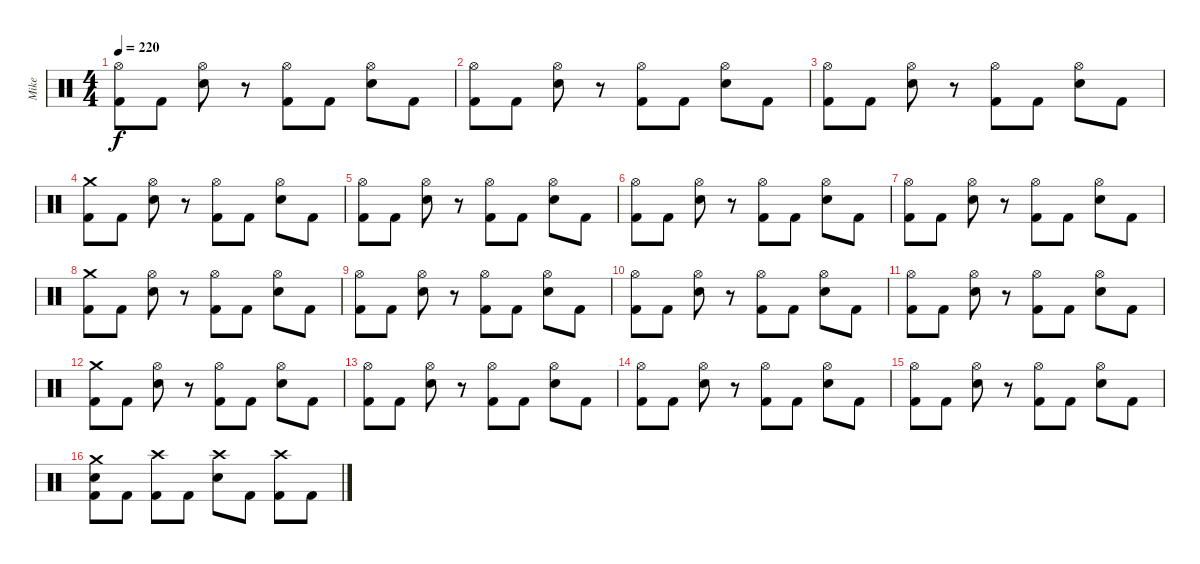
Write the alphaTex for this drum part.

\track ("Mike" "Mike") {instrument percussion}
\staff {score}
\articulation defaults
\ts (4 4)
\tempo 220
\clef neutral
\ks c
("Hi-Hat (open)" "Kick (hit) 2").8{dy f} "Kick (hit) 2".8 ("Hi-Hat (open)" "Electric Snare (hit)").8 r.8 ("Hi-Hat (open)" "Kick (hit) 2").8 "Kick (hit) 2".8 ("Hi-Hat (open)" "Electric Snare (hit)").8 "Kick (hit) 2".8 |
("Hi-Hat (open)" "Kick (hit) 2").8 "Kick (hit) 2".8 ("Hi-Hat (open)" "Electric Snare (hit)").8 r.8 ("Hi-Hat (open)" "Kick (hit) 2").8 "Kick (hit) 2".8 ("Hi-Hat (open)" "Electric Snare (hit)").8 "Kick (hit) 2".8 |
("Hi-Hat (open)" "Kick (hit) 2").8 "Kick (hit) 2".8 ("Hi-Hat (open)" "Electric Snare (hit)").8 r.8 ("Hi-Hat (open)" "Kick (hit) 2").8 "Kick (hit) 2".8 ("Hi-Hat (open)" "Electric Snare (hit)").8 "Kick (hit) 2".8 |
("Crash medium (hit)" "Kick (hit) 2").8 "Kick (hit) 2".8 ("Hi-Hat (open)" "Electric Snare (hit)").8 r.8 ("Hi-Hat (open)" "Kick (hit) 2").8 "Kick (hit) 2".8 ("Hi-Hat (open)" "Electric Snare (hit)").8 "Kick (hit) 2".8 |
("Hi-Hat (open)" "Kick (hit) 2").8 "Kick (hit) 2".8 ("Hi-Hat (open)" "Electric Snare (hit)").8 r.8 ("Hi-Hat (open)" "Kick (hit) 2").8 "Kick (hit) 2".8 ("Hi-Hat (open)" "Electric Snare (hit)").8 "Kick (hit) 2".8 |
("Hi-Hat (open)" "Kick (hit) 2").8 "Kick (hit) 2".8 ("Hi-Hat (open)" "Electric Snare (hit)").8 r.8 ("Hi-Hat (open)" "Kick (hit) 2").8 "Kick (hit) 2".8 ("Hi-Hat (open)" "Electric Snare (hit)").8 "Kick (hit) 2".8 |
("Hi-Hat (open)" "Kick (hit) 2").8 "Kick (hit) 2".8 ("Hi-Hat (open)" "Electric Snare (hit)").8 r.8 ("Hi-Hat (open)" "Kick (hit) 2").8 "Kick (hit) 2".8 ("Hi-Hat (open)" "Electric Snare (hit)").8 "Kick (hit) 2".8 |
("Crash medium (hit)" "Kick (hit) 2").8 "Kick (hit) 2".8 ("Hi-Hat (open)" "Electric Snare (hit)").8 r.8 ("Hi-Hat (open)" "Kick (hit) 2").8 "Kick (hit) 2".8 ("Hi-Hat (open)" "Electric Snare (hit)").8 "Kick (hit) 2".8 |
("Hi-Hat (open)" "Kick (hit) 2").8 "Kick (hit) 2".8 ("Hi-Hat (open)" "Electric Snare (hit)").8 r.8 ("Hi-Hat (open)" "Kick (hit) 2").8 "Kick (hit) 2".8 ("Hi-Hat (open)" "Electric Snare (hit)").8 "Kick (hit) 2".8 |
("Hi-Hat (open)" "Kick (hit) 2").8 "Kick (hit) 2".8 ("Hi-Hat (open)" "Electric Snare (hit)").8 r.8 ("Hi-Hat (open)" "Kick (hit) 2").8 "Kick (hit) 2".8 ("Hi-Hat (open)" "Electric Snare (hit)").8 "Kick (hit) 2".8 |
("Hi-Hat (open)" "Kick (hit) 2").8 "Kick (hit) 2".8 ("Hi-Hat (open)" "Electric Snare (hit)").8 r.8 ("Hi-Hat (open)" "Kick (hit) 2").8 "Kick (hit) 2".8 ("Hi-Hat (open)" "Electric Snare (hit)").8 "Kick (hit) 2".8 |
("Crash medium (hit)" "Kick (hit) 2").8 "Kick (hit) 2".8 ("Hi-Hat (open)" "Electric Snare (hit)").8 r.8 ("Hi-Hat (open)" "Kick (hit) 2").8 "Kick (hit) 2".8 ("Hi-Hat (open)" "Electric Snare (hit)").8 "Kick (hit) 2".8 |
("Hi-Hat (open)" "Kick (hit) 2").8 "Kick (hit) 2".8 ("Hi-Hat (open)" "Electric Snare (hit)").8 r.8 ("Hi-Hat (open)" "Kick (hit) 2").8 "Kick (hit) 2".8 ("Hi-Hat (open)" "Electric Snare (hit)").8 "Kick (hit) 2".8 |
("Hi-Hat (open)" "Kick (hit) 2").8 "Kick (hit) 2".8 ("Hi-Hat (open)" "Electric Snare (hit)").8 r.8 ("Hi-Hat (open)" "Kick (hit) 2").8 "Kick (hit) 2".8 ("Hi-Hat (open)" "Electric Snare (hit)").8 "Kick (hit) 2".8 |
("Hi-Hat (open)" "Kick (hit) 2").8 "Kick (hit) 2".8 ("Hi-Hat (open)" "Electric Snare (hit)").8 r.8 ("Hi-Hat (open)" "Kick (hit) 2").8 "Kick (hit) 2".8 ("Hi-Hat (open)" "Electric Snare (hit)").8 "Kick (hit) 2".8 |
("Crash medium (hit)" "Electric Snare (hit)" "Kick (hit) 2").8 "Kick (hit) 2".8 ("Crash high (hit)" "Kick (hit) 2").8 "Kick (hit) 2".8 ("Crash high (hit)" "Electric Snare (hit)").8 "Kick (hit) 2".8 ("Crash high (hit)" "Kick (hit) 2").8 "Kick (hit) 2".8
